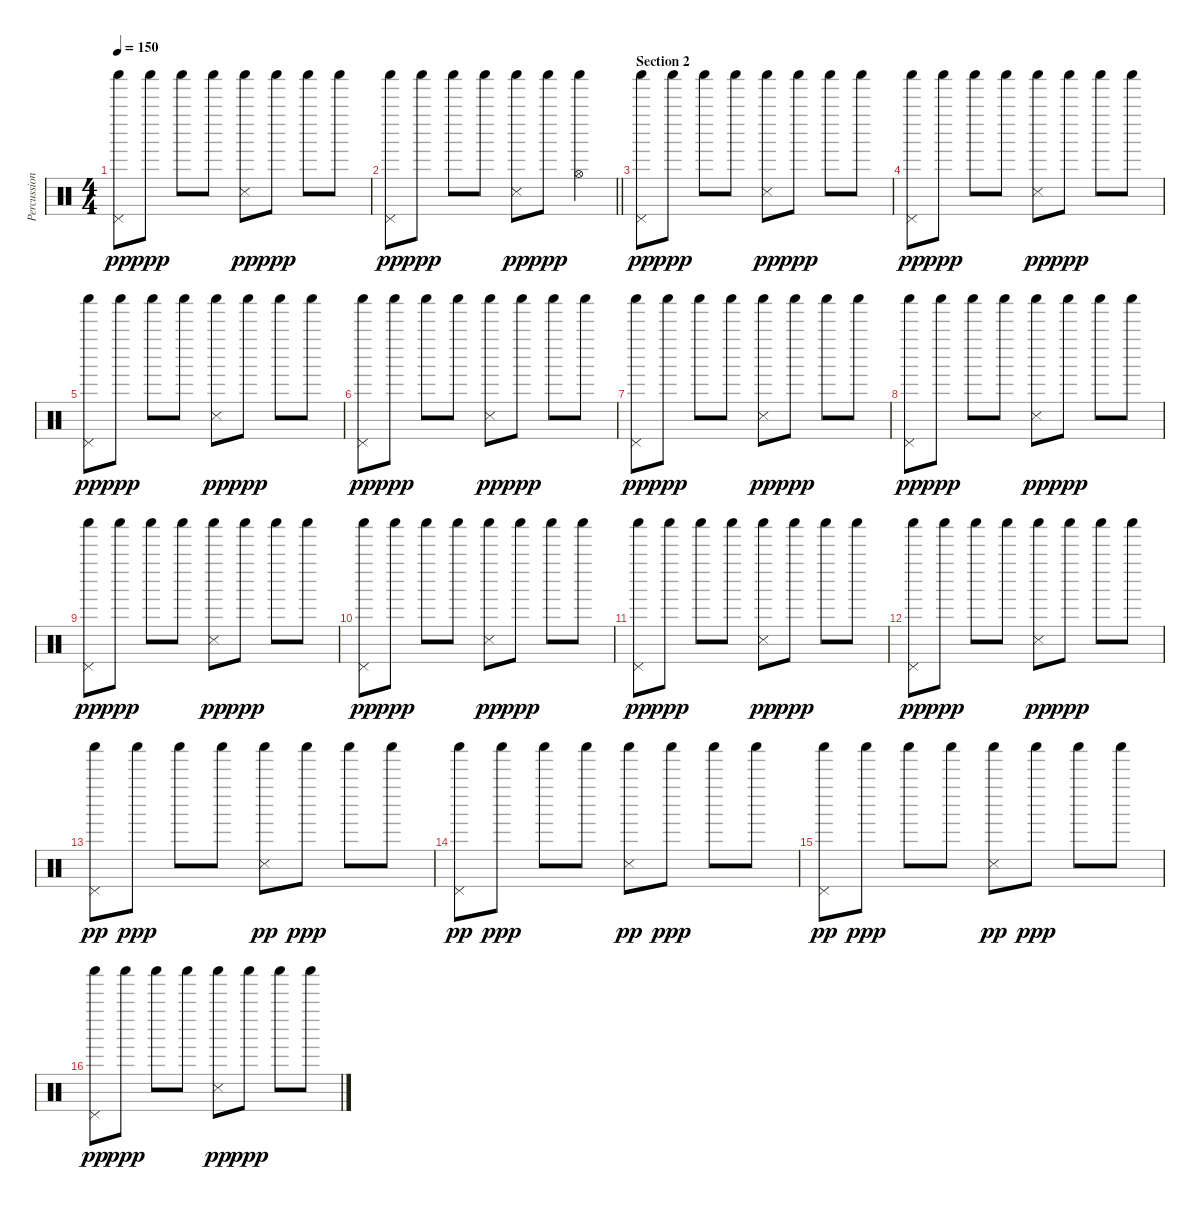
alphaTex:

\track ("Percussion" "Percussion") {instrument percussion}
\staff {score}
\articulation defaults
\ts (4 4)
\tempo 150
\clef neutral
\ks c
("Pedal Hi-Hat (hit)" "Shaker (hit)").8{dy pp} "Shaker (hit)".8{dy ppp} "Shaker (hit)".8 "Shaker (hit)".8 ("Snare (side stick) 3" "Shaker (hit)").8{dy pp} "Shaker (hit)".8{dy ppp} "Shaker (hit)".8 "Shaker (hit)".8 |
\barLineRight lightlight
("Pedal Hi-Hat (hit)" "Shaker (hit)").8{dy pp} "Shaker (hit)".8{dy ppp} "Shaker (hit)".8 "Shaker (hit)".8 ("Snare (side stick) 3" "Shaker (hit)").8{dy pp} "Shaker (hit)".8{dy ppp} ("Hi-Hat (open)" "Shaker (hit)").4 |
\section ("" "Section 2")
("Pedal Hi-Hat (hit)" "Shaker (hit)").8{dy pp} "Shaker (hit)".8{dy ppp} "Shaker (hit)".8 "Shaker (hit)".8 ("Snare (side stick) 3" "Shaker (hit)").8{dy pp} "Shaker (hit)".8{dy ppp} "Shaker (hit)".8 "Shaker (hit)".8 |
("Pedal Hi-Hat (hit)" "Shaker (hit)").8{dy pp} "Shaker (hit)".8{dy ppp} "Shaker (hit)".8 "Shaker (hit)".8 ("Snare (side stick) 3" "Shaker (hit)").8{dy pp} "Shaker (hit)".8{dy ppp} "Shaker (hit)".8 "Shaker (hit)".8 |
("Pedal Hi-Hat (hit)" "Shaker (hit)").8{dy pp} "Shaker (hit)".8{dy ppp} "Shaker (hit)".8 "Shaker (hit)".8 ("Snare (side stick) 3" "Shaker (hit)").8{dy pp} "Shaker (hit)".8{dy ppp} "Shaker (hit)".8 "Shaker (hit)".8 |
("Pedal Hi-Hat (hit)" "Shaker (hit)").8{dy pp} "Shaker (hit)".8{dy ppp} "Shaker (hit)".8 "Shaker (hit)".8 ("Snare (side stick) 3" "Shaker (hit)").8{dy pp} "Shaker (hit)".8{dy ppp} "Shaker (hit)".8 "Shaker (hit)".8 |
("Pedal Hi-Hat (hit)" "Shaker (hit)").8{dy pp} "Shaker (hit)".8{dy ppp} "Shaker (hit)".8 "Shaker (hit)".8 ("Snare (side stick) 3" "Shaker (hit)").8{dy pp} "Shaker (hit)".8{dy ppp} "Shaker (hit)".8 "Shaker (hit)".8 |
("Pedal Hi-Hat (hit)" "Shaker (hit)").8{dy pp} "Shaker (hit)".8{dy ppp} "Shaker (hit)".8 "Shaker (hit)".8 ("Snare (side stick) 3" "Shaker (hit)").8{dy pp} "Shaker (hit)".8{dy ppp} "Shaker (hit)".8 "Shaker (hit)".8 |
("Pedal Hi-Hat (hit)" "Shaker (hit)").8{dy pp} "Shaker (hit)".8{dy ppp} "Shaker (hit)".8 "Shaker (hit)".8 ("Snare (side stick) 3" "Shaker (hit)").8{dy pp} "Shaker (hit)".8{dy ppp} "Shaker (hit)".8 "Shaker (hit)".8 |
("Pedal Hi-Hat (hit)" "Shaker (hit)").8{dy pp} "Shaker (hit)".8{dy ppp} "Shaker (hit)".8 "Shaker (hit)".8 ("Snare (side stick) 3" "Shaker (hit)").8{dy pp} "Shaker (hit)".8{dy ppp} "Shaker (hit)".8 "Shaker (hit)".8 |
("Pedal Hi-Hat (hit)" "Shaker (hit)").8{dy pp} "Shaker (hit)".8{dy ppp} "Shaker (hit)".8 "Shaker (hit)".8 ("Snare (side stick) 3" "Shaker (hit)").8{dy pp} "Shaker (hit)".8{dy ppp} "Shaker (hit)".8 "Shaker (hit)".8 |
("Pedal Hi-Hat (hit)" "Shaker (hit)").8{dy pp} "Shaker (hit)".8{dy ppp} "Shaker (hit)".8 "Shaker (hit)".8 ("Snare (side stick) 3" "Shaker (hit)").8{dy pp} "Shaker (hit)".8{dy ppp} "Shaker (hit)".8 "Shaker (hit)".8 |
("Pedal Hi-Hat (hit)" "Shaker (hit)").8{dy pp} "Shaker (hit)".8{dy ppp} "Shaker (hit)".8 "Shaker (hit)".8 ("Snare (side stick) 3" "Shaker (hit)").8{dy pp} "Shaker (hit)".8{dy ppp} "Shaker (hit)".8 "Shaker (hit)".8 |
("Pedal Hi-Hat (hit)" "Shaker (hit)").8{dy pp} "Shaker (hit)".8{dy ppp} "Shaker (hit)".8 "Shaker (hit)".8 ("Snare (side stick) 3" "Shaker (hit)").8{dy pp} "Shaker (hit)".8{dy ppp} "Shaker (hit)".8 "Shaker (hit)".8 |
("Pedal Hi-Hat (hit)" "Shaker (hit)").8{dy pp} "Shaker (hit)".8{dy ppp} "Shaker (hit)".8 "Shaker (hit)".8 ("Snare (side stick) 3" "Shaker (hit)").8{dy pp} "Shaker (hit)".8{dy ppp} "Shaker (hit)".8 "Shaker (hit)".8 |
("Pedal Hi-Hat (hit)" "Shaker (hit)").8{dy pp} "Shaker (hit)".8{dy ppp} "Shaker (hit)".8 "Shaker (hit)".8 ("Snare (side stick) 3" "Shaker (hit)").8{dy pp} "Shaker (hit)".8{dy ppp} "Shaker (hit)".8 "Shaker (hit)".8
